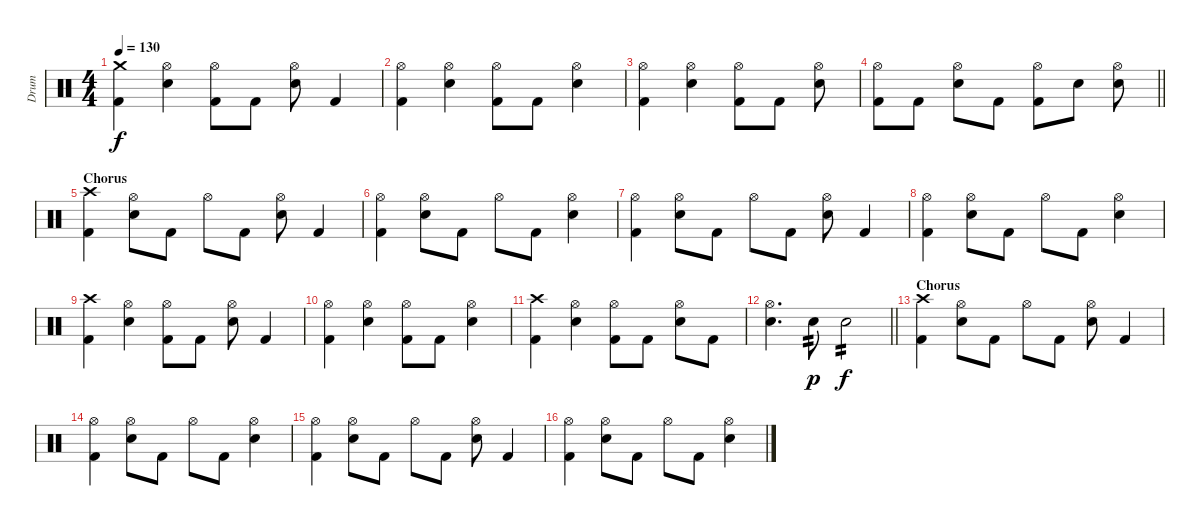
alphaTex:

\track ("Drum" "Drum") {instrument percussion}
\staff {score}
\articulation defaults
\ts (4 4)
\tempo 130
\clef neutral
\ks c
("Crash medium (hit)" "Kick (hit) 2").4{dy f} ("Hi-Hat (open)" "Electric Snare (hit)").4 ("Hi-Hat (open)" "Kick (hit) 2").8 "Kick (hit) 2".8 ("Hi-Hat (open)" "Electric Snare (hit)").8 "Kick (hit) 2".4 |
("Hi-Hat (open)" "Kick (hit) 2").4 ("Hi-Hat (open)" "Electric Snare (hit)").4 ("Hi-Hat (open)" "Kick (hit) 2").8 "Kick (hit) 2".8 ("Hi-Hat (open)" "Electric Snare (hit)").4 |
("Hi-Hat (open)" "Kick (hit) 2").4 ("Hi-Hat (open)" "Electric Snare (hit)").4 ("Hi-Hat (open)" "Kick (hit) 2").8 "Kick (hit) 2".8 ("Hi-Hat (open)" "Electric Snare (hit)").8 |
\barLineRight lightlight
("Hi-Hat (open)" "Kick (hit) 2").8 "Kick (hit) 2".8 ("Hi-Hat (open)" "Electric Snare (hit)").8 "Kick (hit) 2".8 ("Hi-Hat (open)" "Kick (hit) 2").8 "Electric Snare (hit)".8 ("Hi-Hat (open)" "Electric Snare (hit)").8 |
\section ("" "Chorus")
("Crash high (hit)" "Kick (hit) 2").4 ("Hi-Hat (open)" "Electric Snare (hit)").8 "Kick (hit) 2".8 "Hi-Hat (open)".8 "Kick (hit) 2".8 ("Hi-Hat (open)" "Electric Snare (hit)").8 "Kick (hit) 2".4 |
("Hi-Hat (open)" "Kick (hit) 2").4 ("Hi-Hat (open)" "Electric Snare (hit)").8 "Kick (hit) 2".8 "Hi-Hat (open)".8 "Kick (hit) 2".8 ("Hi-Hat (open)" "Electric Snare (hit)").4 |
("Hi-Hat (open)" "Kick (hit) 2").4 ("Hi-Hat (open)" "Electric Snare (hit)").8 "Kick (hit) 2".8 "Hi-Hat (open)".8 "Kick (hit) 2".8 ("Hi-Hat (open)" "Electric Snare (hit)").8 "Kick (hit) 2".4 |
("Hi-Hat (open)" "Kick (hit) 2").4 ("Hi-Hat (open)" "Electric Snare (hit)").8 "Kick (hit) 2".8 "Hi-Hat (open)".8 "Kick (hit) 2".8 ("Hi-Hat (open)" "Electric Snare (hit)").4 |
("Crash high (hit)" "Kick (hit) 2").4 ("Hi-Hat (open)" "Electric Snare (hit)").4 ("Hi-Hat (open)" "Kick (hit) 2").8 "Kick (hit) 2".8 ("Hi-Hat (open)" "Electric Snare (hit)").8 "Kick (hit) 2".4 |
("Hi-Hat (open)" "Kick (hit) 2").4 ("Hi-Hat (open)" "Electric Snare (hit)").4 ("Hi-Hat (open)" "Kick (hit) 2").8 "Kick (hit) 2".8 ("Hi-Hat (open)" "Electric Snare (hit)").4 |
("Crash high (hit)" "Kick (hit) 2").4 ("Hi-Hat (open)" "Electric Snare (hit)").4 ("Hi-Hat (open)" "Kick (hit) 2").8 "Kick (hit) 2".8 ("Hi-Hat (open)" "Electric Snare (hit)").8 "Kick (hit) 2".8 |
\barLineRight lightlight
("Hi-Hat (open)" "Electric Snare (hit)").4{d} "Electric Snare (hit)".8{tp 2 dy p} "Electric Snare (hit)".2{tp 2 dy f} |
\section ("" "Chorus")
("Crash high (hit)" "Kick (hit) 2").4 ("Hi-Hat (open)" "Electric Snare (hit)").8 "Kick (hit) 2".8 "Hi-Hat (open)".8 "Kick (hit) 2".8 ("Hi-Hat (open)" "Electric Snare (hit)").8 "Kick (hit) 2".4 |
("Hi-Hat (open)" "Kick (hit) 2").4 ("Hi-Hat (open)" "Electric Snare (hit)").8 "Kick (hit) 2".8 "Hi-Hat (open)".8 "Kick (hit) 2".8 ("Hi-Hat (open)" "Electric Snare (hit)").4 |
("Hi-Hat (open)" "Kick (hit) 2").4 ("Hi-Hat (open)" "Electric Snare (hit)").8 "Kick (hit) 2".8 "Hi-Hat (open)".8 "Kick (hit) 2".8 ("Hi-Hat (open)" "Electric Snare (hit)").8 "Kick (hit) 2".4 |
("Hi-Hat (open)" "Kick (hit) 2").4 ("Hi-Hat (open)" "Electric Snare (hit)").8 "Kick (hit) 2".8 "Hi-Hat (open)".8 "Kick (hit) 2".8 ("Hi-Hat (open)" "Electric Snare (hit)").4
